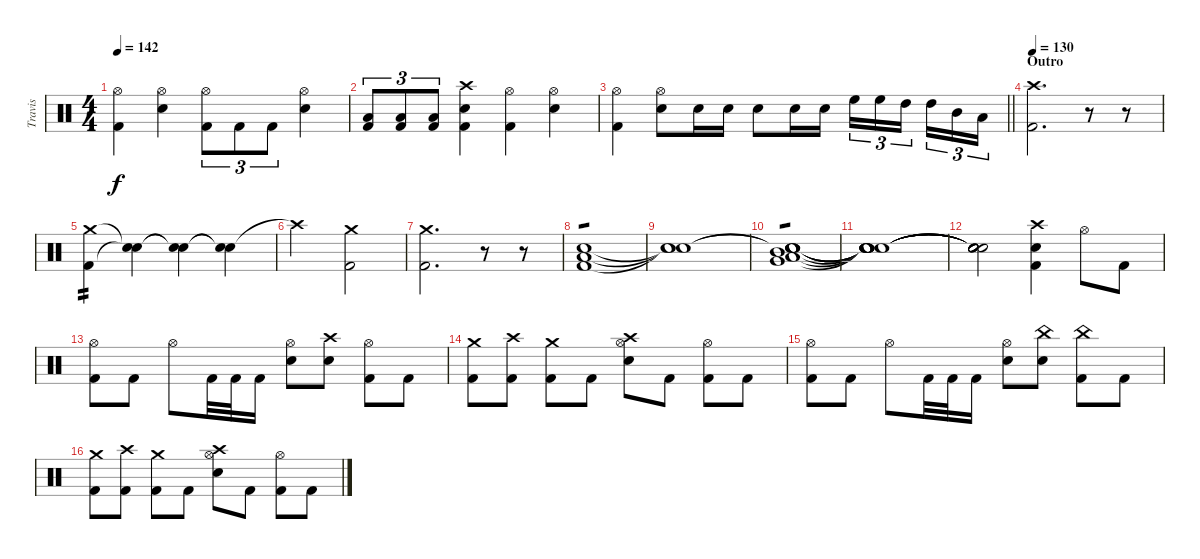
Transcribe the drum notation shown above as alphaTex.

\track ("Travis" "Travis") {instrument percussion}
\staff {score}
\articulation defaults
\ts (4 4)
\tempo 142
\clef neutral
\ks c
("Hi-Hat (open)" "Kick (hit) 2").4{dy f} ("Hi-Hat (open)" "Snare (hit) 2").4 ("Hi-Hat (open)" "Kick (hit) 2").8{tu (3 2)} "Kick (hit) 2".8{tu (3 2)} "Kick (hit) 2".8{tu (3 2)} ("Hi-Hat (open)" "Snare (hit) 2").4 |
("Low Tom (hit)" "Kick (hit) 2").8{tu (3 2)} ("Low Tom (hit)" "Kick (hit) 2").8{tu (3 2)} ("Low Tom (hit)" "Kick (hit) 2").8{tu (3 2)} ("Crash high (hit)" "Snare (hit) 2" "Kick (hit) 2").4 ("Hi-Hat (open)" "Kick (hit) 2").4 ("Hi-Hat (open)" "Snare (hit) 2").4 |
\barLineRight lightlight
("Hi-Hat (open)" "Kick (hit) 2").4 ("Hi-Hat (open)" "Snare (hit) 2").8 "Snare (hit) 2".16 "Snare (hit) 2".16 "Snare (hit) 2".8 "Snare (hit) 2".16 "Snare (hit) 2".16 "High Floor Tom (hit)".16{tu (3 2)} "High Floor Tom (hit)".16{tu (3 2)} "High Tom (hit)".16{tu (3 2) beam splitsecondary} "High Tom (hit)".16{tu (3 2)} "Mid Tom (hit)".16{tu (3 2)} "Low Tom (hit)".16{tu (3 2)} |
\section ("" "Outro")
\tempo 130
("Crash high (hit)" "Kick (hit) 2").2{d} r.8 r.8{volume 0} |
("Crash medium (hit)" "Kick (hit) 2").4{tp 2 volume 13} ("Snare (hit)"{t} "Snare (hit)"{t}).4 ("Snare (hit)"{t} "Snare (hit)"{t}).4 ("Snare (hit)"{t} "Snare (hit)"{t}).4 |
"Crash high (hit)"{t}.2 ("Crash medium (hit)" "Kick (hit) 2").2 |
("Crash medium (hit)" "Kick (hit) 2").2{d} r.8 r.8{volume 0} |
("Low Floor Tom (hit)" "Snare (hit) 2" "Kick (hit) 2").1{tp 1 volume 13} |
("Snare (hit)"{t} "Snare (hit)"{t} "Snare (hit)"{t}).1 |
("Low Tom (hit)" "Snare (hit)"{t} "Snare (hit)"{t} "Snare (hit)" "Mid Tom (hit)" "Very Low Tom (hit)").1{tp 1} |
("Snare (hit)"{t} "Snare (hit)"{t} "Snare (hit)"{t} "Snare (hit)"{t} "Snare (hit)"{t} "Snare (hit)"{t}).1 |
("Snare (hit)"{t} "Snare (hit)"{t} "Snare (hit)"{t} "Snare (hit)"{t} "Snare (hit)"{t} "Snare (hit)"{t}).2 ("Crash high (hit)" "Kick (hit) 2" "Snare (hit) 2").4 "Hi-Hat (open)".8 "Kick (hit) 2".8 |
("Hi-Hat (open)" "Kick (hit) 2").8 "Kick (hit) 2".8 "Hi-Hat (open)".8 "Kick (hit) 2".32 "Kick (hit) 2".32 "Kick (hit) 2".16 ("Hi-Hat (open)" "Snare (hit) 2").8 ("Crash high (hit)" "Snare (hit) 2").8 ("Hi-Hat (open)" "Kick (hit) 2").8 "Kick (hit) 2".8 |
("Crash medium (hit)" "Kick (hit) 2").8 ("Crash high (hit)" "Kick (hit) 2").8 ("Crash medium (hit)" "Kick (hit) 2").8 "Kick (hit) 2".8 ("Crash high (hit)" "Hi-Hat (open)" "Snare (hit) 2").8 "Kick (hit) 2".8 ("Hi-Hat (open)" "Kick (hit) 2").8 "Kick (hit) 2".8 |
("Hi-Hat (open)" "Kick (hit) 2").8 "Kick (hit) 2".8 "Hi-Hat (open)".8 "Kick (hit) 2".32 "Kick (hit) 2".32 "Kick (hit) 2".16 ("Hi-Hat (open)" "Snare (hit) 2").8 ("China (hit)" "Snare (hit) 2").8 ("China (hit)" "Kick (hit) 2").8 "Kick (hit) 2".8 |
("Crash medium (hit)" "Kick (hit) 2").8 ("Crash high (hit)" "Kick (hit) 2").8 ("Crash medium (hit)" "Kick (hit) 2").8 "Kick (hit) 2".8 ("Crash high (hit)" "Hi-Hat (open)" "Snare (hit) 2").8 "Kick (hit) 2".8 ("Hi-Hat (open)" "Kick (hit) 2").8 "Kick (hit) 2".8
